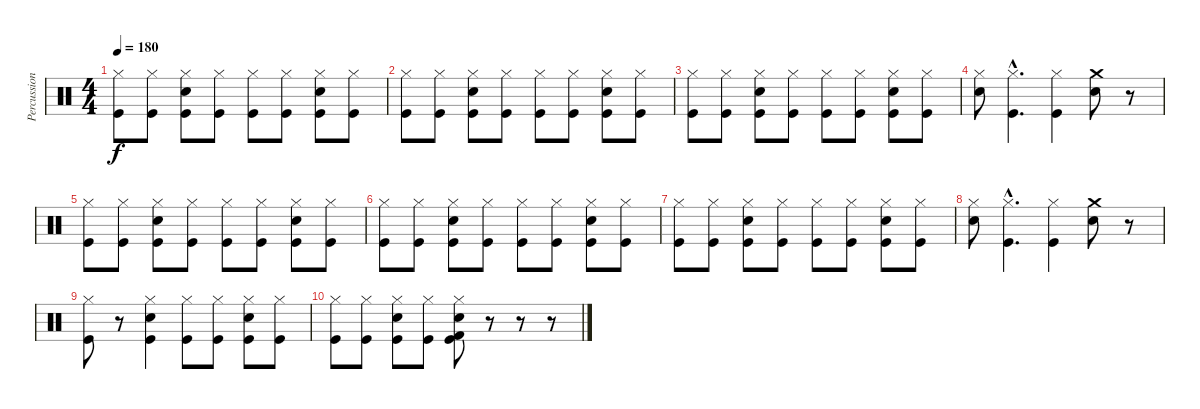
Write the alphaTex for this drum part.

\track ("Percussion" "Percussion") {instrument percussion}
\staff {score}
\articulation defaults
\ts (4 4)
\tempo 180
\clef neutral
\ks c
("Hi-Hat (closed)" "Kick (hit)").8{dy f} ("Hi-Hat (closed)" "Kick (hit)").8 ("Hi-Hat (closed)" "Snare (hit) 2" "Kick (hit)").8 ("Hi-Hat (closed)" "Kick (hit)").8 ("Hi-Hat (closed)" "Kick (hit)").8 ("Hi-Hat (closed)" "Kick (hit)").8 ("Hi-Hat (closed)" "Snare (hit) 2" "Kick (hit)").8 ("Hi-Hat (closed)" "Kick (hit)").8 |
("Hi-Hat (closed)" "Kick (hit)").8 ("Hi-Hat (closed)" "Kick (hit)").8 ("Hi-Hat (closed)" "Snare (hit) 2" "Kick (hit)").8 ("Hi-Hat (closed)" "Kick (hit)").8 ("Hi-Hat (closed)" "Kick (hit)").8 ("Hi-Hat (closed)" "Kick (hit)").8 ("Hi-Hat (closed)" "Snare (hit) 2" "Kick (hit)").8 ("Hi-Hat (closed)" "Kick (hit)").8 |
("Hi-Hat (closed)" "Kick (hit)").8 ("Hi-Hat (closed)" "Kick (hit)").8 ("Hi-Hat (closed)" "Snare (hit) 2" "Kick (hit)").8 ("Hi-Hat (closed)" "Kick (hit)").8 ("Hi-Hat (closed)" "Kick (hit)").8 ("Hi-Hat (closed)" "Kick (hit)").8 ("Hi-Hat (closed)" "Snare (hit) 2" "Kick (hit)").8 ("Hi-Hat (closed)" "Kick (hit)").8 |
("Hi-Hat (closed)" "Snare (hit) 2").8 ("Hi-Hat (closed)"{hac} "Kick (hit)"{hac}).4{d} ("Hi-Hat (closed)" "Kick (hit)").4 ("Crash medium (hit)" "Snare (hit) 2").8 r.8 |
("Hi-Hat (closed)" "Kick (hit)").8 ("Hi-Hat (closed)" "Kick (hit)").8 ("Hi-Hat (closed)" "Snare (hit) 2" "Kick (hit)").8 ("Hi-Hat (closed)" "Kick (hit)").8 ("Hi-Hat (closed)" "Kick (hit)").8 ("Hi-Hat (closed)" "Kick (hit)").8 ("Hi-Hat (closed)" "Snare (hit) 2" "Kick (hit)").8 ("Hi-Hat (closed)" "Kick (hit)").8 |
("Hi-Hat (closed)" "Kick (hit)").8 ("Hi-Hat (closed)" "Kick (hit)").8 ("Hi-Hat (closed)" "Snare (hit) 2" "Kick (hit)").8 ("Hi-Hat (closed)" "Kick (hit)").8 ("Hi-Hat (closed)" "Kick (hit)").8 ("Hi-Hat (closed)" "Kick (hit)").8 ("Hi-Hat (closed)" "Snare (hit) 2" "Kick (hit)").8 ("Hi-Hat (closed)" "Kick (hit)").8 |
("Hi-Hat (closed)" "Kick (hit)").8 ("Hi-Hat (closed)" "Kick (hit)").8 ("Hi-Hat (closed)" "Snare (hit) 2" "Kick (hit)").8 ("Hi-Hat (closed)" "Kick (hit)").8 ("Hi-Hat (closed)" "Kick (hit)").8 ("Hi-Hat (closed)" "Kick (hit)").8 ("Hi-Hat (closed)" "Snare (hit) 2" "Kick (hit)").8 ("Hi-Hat (closed)" "Kick (hit)").8 |
("Hi-Hat (closed)" "Snare (hit) 2").8 ("Hi-Hat (closed)"{hac} "Kick (hit)"{hac}).4{d} ("Hi-Hat (closed)" "Kick (hit)").4 ("Crash medium (hit)" "Snare (hit) 2").8 r.8 |
("Hi-Hat (closed)" "Kick (hit)").8 r.8 ("Hi-Hat (closed)" "Snare (hit) 2" "Kick (hit)").4 ("Hi-Hat (closed)" "Kick (hit)").8 ("Hi-Hat (closed)" "Kick (hit)").8 ("Hi-Hat (closed)" "Snare (hit) 2" "Kick (hit)").8 ("Hi-Hat (closed)" "Kick (hit)").8 |
("Hi-Hat (closed)" "Kick (hit)").8 ("Hi-Hat (closed)" "Kick (hit)").8 ("Hi-Hat (closed)" "Snare (hit) 2" "Kick (hit)").8 ("Hi-Hat (closed)" "Kick (hit)").8 ("Hi-Hat (closed)" "Snare (hit) 2" "Kick (hit)" "Kick (hit) 2").8 r.8 r.8 r.8
